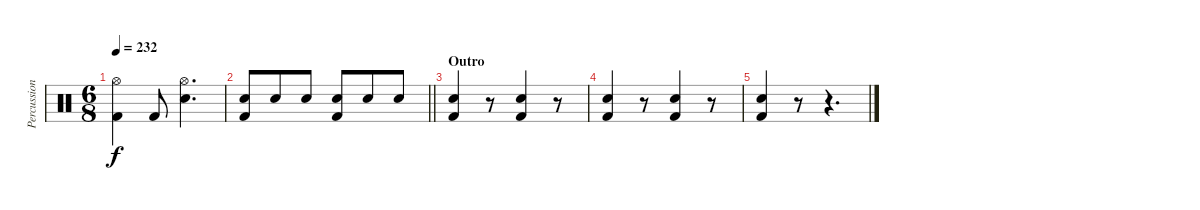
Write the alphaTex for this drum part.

\track ("Percussion" "Percussion") {instrument percussion}
\staff {score}
\articulation defaults
\ts (6 8)
\tempo 232
\clef neutral
\ks c
("Hi-Hat (open)" "Kick (hit) 2").4{dy f} "Kick (hit) 2".8 ("Hi-Hat (open)" "Electric Snare (hit)").4{d} |
\barLineRight lightlight
("Electric Snare (hit)" "Kick (hit) 2").8 "Electric Snare (hit)".8 "Electric Snare (hit)".8 ("Electric Snare (hit)" "Kick (hit) 2").8 "Electric Snare (hit)".8 "Electric Snare (hit)".8 |
\section ("" "Outro")
("Electric Snare (hit)" "Kick (hit) 2").4 r.8 ("Electric Snare (hit)" "Kick (hit) 2").4 r.8 |
("Electric Snare (hit)" "Kick (hit) 2").4 r.8 ("Electric Snare (hit)" "Kick (hit) 2").4 r.8 |
("Electric Snare (hit)" "Kick (hit) 2").4 r.8 r.4{d}
